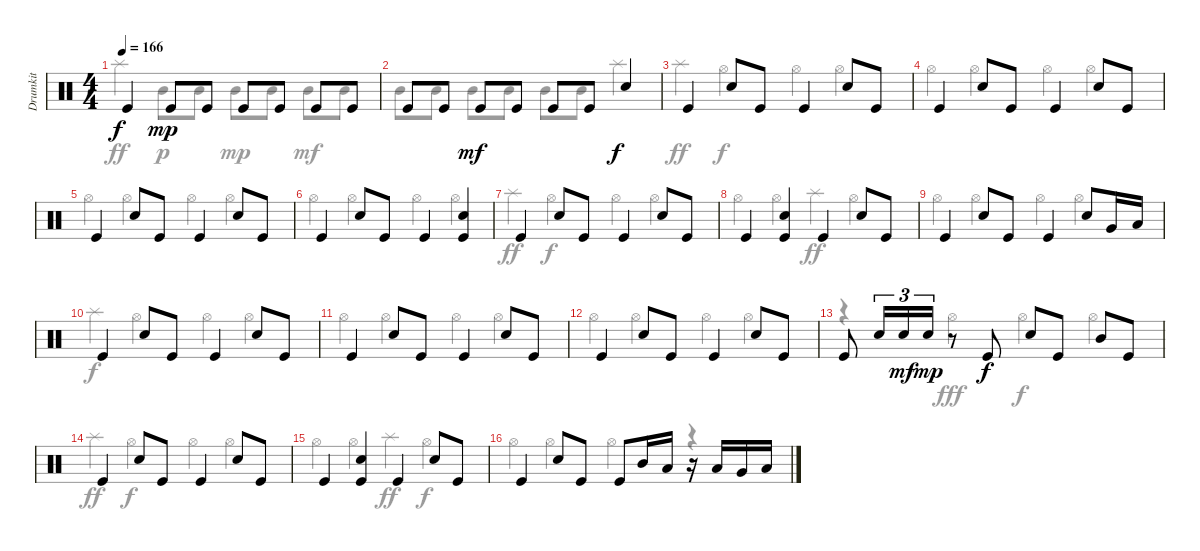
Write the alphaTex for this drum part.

\track ("Drumkit" "Drumkit") {instrument percussion}
\staff {score}
\articulation defaults
\voice
\ts (4 4)
\tempo 166
\clef neutral
\ks c "Kick (hit)".4{dy f} "Kick (hit)".8{dy mp} "Kick (hit)".8 "Kick (hit)".8 "Kick (hit)".8 "Kick (hit)".8 "Kick (hit)".8
|
"Kick (hit)".8 "Kick (hit)".8 "Kick (hit)".8{dy mf} "Kick (hit)".8 "Kick (hit)".8 "Kick (hit)".8 "Snare (hit) 2".4{dy f} |
"Kick (hit)".4 "Snare (hit) 2".8 "Kick (hit)".8 "Kick (hit)".4 "Snare (hit) 2".8 "Kick (hit)".8 |
"Kick (hit)".4 "Snare (hit) 2".8 "Kick (hit)".8 "Kick (hit)".4 "Snare (hit) 2".8 "Kick (hit)".8 |
"Kick (hit)".4 "Snare (hit) 2".8 "Kick (hit)".8 "Kick (hit)".4 "Snare (hit) 2".8 "Kick (hit)".8 |
"Kick (hit)".4 "Snare (hit) 2".8 "Kick (hit)".8 "Kick (hit)".4 ("Snare (hit) 2" "Kick (hit)").4 |
"Kick (hit)".4 "Snare (hit) 2".8 "Kick (hit)".8 "Kick (hit)".4 "Snare (hit) 2".8 "Kick (hit)".8 |
"Kick (hit)".4 ("Kick (hit)" "Snare (hit) 2").4 "Kick (hit)".4 "Snare (hit) 2".8 "Kick (hit)".8 |
"Kick (hit)".4 "Snare (hit) 2".8 "Kick (hit)".8 "Kick (hit)".4 "Snare (hit) 2".8 "Very Low Tom (hit)".16 "Low Floor Tom (hit)".16 |
"Kick (hit)".4 "Snare (hit) 2".8 "Kick (hit)".8 "Kick (hit)".4 "Snare (hit) 2".8 "Kick (hit)".8 |
"Kick (hit)".4 "Snare (hit) 2".8 "Kick (hit)".8 "Kick (hit)".4 "Snare (hit) 2".8 "Kick (hit)".8 |
"Kick (hit)".4 "Snare (hit) 2".8 "Kick (hit)".8 "Kick (hit)".4 "Snare (hit) 2".8 "Kick (hit)".8 |
"Kick (hit)".8 "Snare (hit) 2".16{tu (3 2)} "Snare (hit) 2".16{tu (3 2) dy mf} "Snare (hit) 2".16{tu (3 2) dy mp} r.8 "Kick (hit)".8{dy f} "Snare (hit) 2".8 "Kick (hit)".8 "Mid Tom (hit)".8 "Kick (hit)".8 |
"Kick (hit)".4 "Snare (hit) 2".8 "Kick (hit)".8 "Kick (hit)".4 "Snare (hit) 2".8 "Kick (hit)".8 |
"Kick (hit)".4 ("Kick (hit)" "Snare (hit) 2").4 "Kick (hit)".4 "Snare (hit) 2".8 "Kick (hit)".8 |
"Kick (hit)".4 "Snare (hit) 2".8 "Kick (hit)".8 "Kick (hit)".8 "Mid Tom (hit)".16 "Low Tom (hit)".16 r.16 "Low Tom (hit)".16 "Very Low Tom (hit)".16 "Low Floor Tom (hit)".16
\voice
\clef neutral
\ottava regular
\simile none
\ks c "Splash (hit)".4{dy ff} "Mid Tom (hit)".8{dy p} "Mid Tom (hit)".8 "Mid Tom (hit)".8{dy mp} "Mid Tom (hit)".8 "Mid Tom (hit)".8{dy mf} "Mid Tom (hit)".8
|
"Mid Tom (hit)".8 "Mid Tom (hit)".8 "Mid Tom (hit)".8 "Mid Tom (hit)".8 "Mid Tom (hit)".8 "Mid Tom (hit)".8 "Splash (hit)".4 |
"Splash (hit)".4{dy ff} "Hi-Hat (open)".4{dy f} "Hi-Hat (open)".4 "Hi-Hat (open)".4 |
"Hi-Hat (open)".4 "Hi-Hat (open)".4 "Hi-Hat (open)".4 "Hi-Hat (open)".4 |
"Hi-Hat (open)".4 "Hi-Hat (open)".4 "Hi-Hat (open)".4 "Hi-Hat (open)".4 |
"Hi-Hat (open)".4 "Hi-Hat (open)".4 "Hi-Hat (open)".4 "Hi-Hat (open)".4 |
"Splash (hit)".4{dy ff} "Hi-Hat (open)".4{dy f} "Hi-Hat (open)".4 "Hi-Hat (open)".4 |
"Hi-Hat (open)".4 "Hi-Hat (open)".4 "Splash (hit)".4{dy ff} "Hi-Hat (open)".4 |
"Hi-Hat (open)".4 "Hi-Hat (open)".4 "Hi-Hat (open)".4 "Hi-Hat (open)".4 |
"Splash (hit)".4{dy f} "Hi-Hat (open)".4 "Hi-Hat (open)".4 "Hi-Hat (open)".4 |
"Hi-Hat (open)".4 "Hi-Hat (open)".4 "Hi-Hat (open)".4 "Hi-Hat (open)".4 |
"Hi-Hat (open)".4 "Hi-Hat (open)".4 "Hi-Hat (open)".4 "Hi-Hat (open)".4 |
r.4 "Hi-Hat (open)".4{dy fff} "Hi-Hat (open)".4{dy f} "Hi-Hat (open)".4 |
"Splash (hit)".4{dy ff} "Hi-Hat (open)".4{dy f} "Hi-Hat (open)".4 "Hi-Hat (open)".4 |
"Hi-Hat (open)".4 "Hi-Hat (open)".4 "Splash (hit)".4{dy ff} "Hi-Hat (open)".4{dy f} |
"Hi-Hat (open)".4 "Hi-Hat (open)".4 "Hi-Hat (open)".4 r.4
